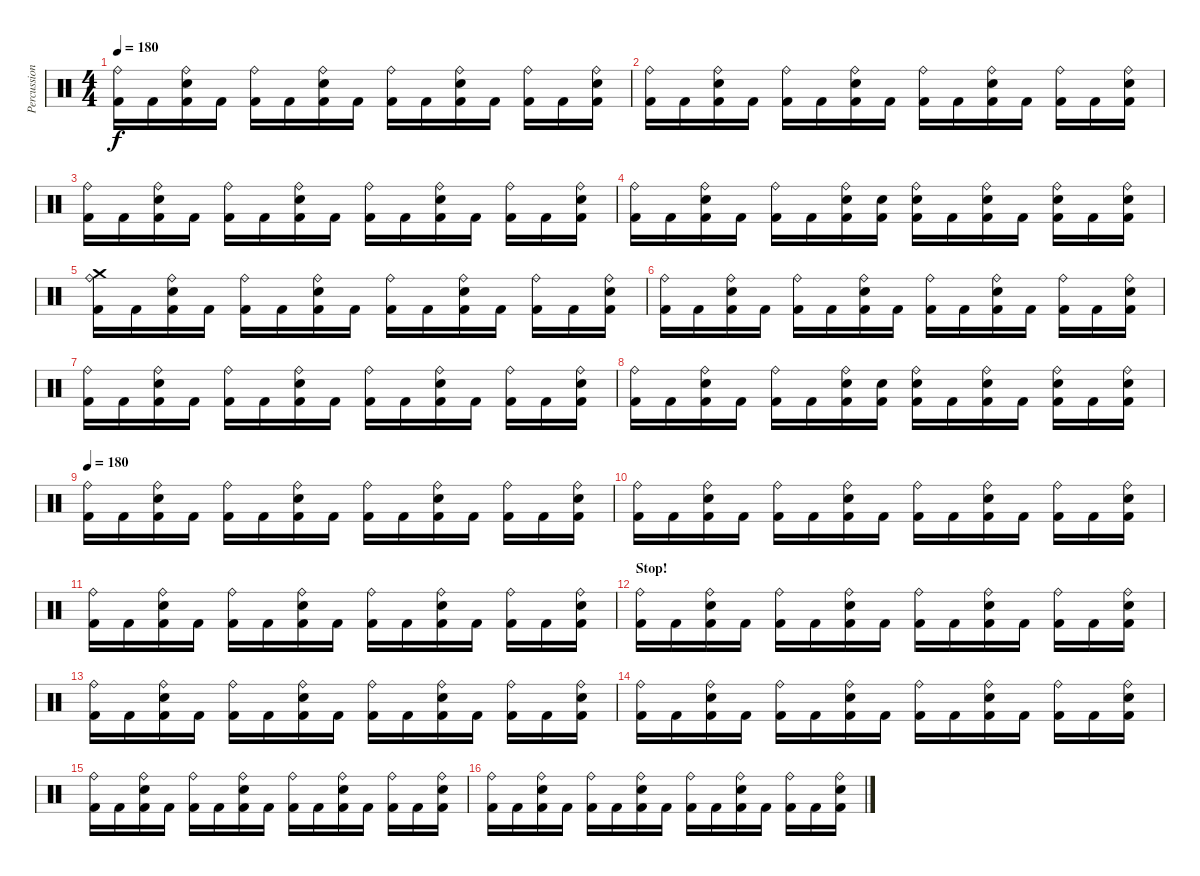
\track ("Percussion" "Percussion") {instrument percussion}
\staff {score}
\articulation defaults
\ts (4 4)
\tempo 180
\clef neutral
\ks c
("Ride (bell)" "Kick (hit) 2").16{dy f} "Kick (hit) 2".16 ("Ride (bell)" "Snare (hit) 2" "Kick (hit) 2").16 "Kick (hit) 2".16 ("Ride (bell)" "Kick (hit) 2").16 "Kick (hit) 2".16 ("Ride (bell)" "Snare (hit) 2" "Kick (hit) 2").16 "Kick (hit) 2".16 ("Ride (bell)" "Kick (hit) 2").16 "Kick (hit) 2".16 ("Ride (bell)" "Snare (hit) 2" "Kick (hit) 2").16 "Kick (hit) 2".16 ("Ride (bell)" "Kick (hit) 2").16 "Kick (hit) 2".16 ("Ride (bell)" "Snare (hit) 2" "Kick (hit) 2").16 |
("Ride (bell)" "Kick (hit) 2").16 "Kick (hit) 2".16 ("Ride (bell)" "Snare (hit) 2" "Kick (hit) 2").16 "Kick (hit) 2".16 ("Ride (bell)" "Kick (hit) 2").16 "Kick (hit) 2".16 ("Ride (bell)" "Snare (hit) 2" "Kick (hit) 2").16 "Kick (hit) 2".16 ("Ride (bell)" "Kick (hit) 2").16 "Kick (hit) 2".16 ("Ride (bell)" "Snare (hit) 2" "Kick (hit) 2").16 "Kick (hit) 2".16 ("Ride (bell)" "Kick (hit) 2").16 "Kick (hit) 2".16 ("Ride (bell)" "Snare (hit) 2" "Kick (hit) 2").16 |
("Ride (bell)" "Kick (hit) 2").16 "Kick (hit) 2".16 ("Ride (bell)" "Snare (hit) 2" "Kick (hit) 2").16 "Kick (hit) 2".16 ("Ride (bell)" "Kick (hit) 2").16 "Kick (hit) 2".16 ("Ride (bell)" "Snare (hit) 2" "Kick (hit) 2").16 "Kick (hit) 2".16 ("Ride (bell)" "Kick (hit) 2").16 "Kick (hit) 2".16 ("Ride (bell)" "Snare (hit) 2" "Kick (hit) 2").16 "Kick (hit) 2".16 ("Ride (bell)" "Kick (hit) 2").16 "Kick (hit) 2".16 ("Ride (bell)" "Snare (hit) 2" "Kick (hit) 2").16 |
("Ride (bell)" "Kick (hit) 2").16 "Kick (hit) 2".16 ("Ride (bell)" "Snare (hit) 2" "Kick (hit) 2").16 "Kick (hit) 2".16 ("Ride (bell)" "Kick (hit) 2").16 "Kick (hit) 2".16 ("Ride (bell)" "Snare (hit) 2" "Kick (hit) 2").16 ("Snare (hit) 2" "Kick (hit) 2").16 ("Ride (bell)" "Snare (hit) 2" "Kick (hit) 2").16 "Kick (hit) 2".16 ("Ride (bell)" "Snare (hit) 2" "Kick (hit) 2").16 "Kick (hit) 2".16 ("Ride (bell)" "Snare (hit) 2" "Kick (hit) 2").16 "Kick (hit) 2".16 ("Ride (bell)" "Snare (hit) 2" "Kick (hit) 2").16 |
("Ride (bell)" "Crash medium (hit)" "Kick (hit) 2").16 "Kick (hit) 2".16 ("Ride (bell)" "Snare (hit) 2" "Kick (hit) 2").16 "Kick (hit) 2".16 ("Ride (bell)" "Kick (hit) 2").16 "Kick (hit) 2".16 ("Ride (bell)" "Snare (hit) 2" "Kick (hit) 2").16 "Kick (hit) 2".16 ("Ride (bell)" "Kick (hit) 2").16 "Kick (hit) 2".16 ("Ride (bell)" "Snare (hit) 2" "Kick (hit) 2").16 "Kick (hit) 2".16 ("Ride (bell)" "Kick (hit) 2").16 "Kick (hit) 2".16 ("Ride (bell)" "Snare (hit) 2" "Kick (hit) 2").16 |
("Ride (bell)" "Kick (hit) 2").16 "Kick (hit) 2".16 ("Ride (bell)" "Snare (hit) 2" "Kick (hit) 2").16 "Kick (hit) 2".16 ("Ride (bell)" "Kick (hit) 2").16 "Kick (hit) 2".16 ("Ride (bell)" "Snare (hit) 2" "Kick (hit) 2").16 "Kick (hit) 2".16 ("Ride (bell)" "Kick (hit) 2").16 "Kick (hit) 2".16 ("Ride (bell)" "Snare (hit) 2" "Kick (hit) 2").16 "Kick (hit) 2".16 ("Ride (bell)" "Kick (hit) 2").16 "Kick (hit) 2".16 ("Ride (bell)" "Snare (hit) 2" "Kick (hit) 2").16 |
("Ride (bell)" "Kick (hit) 2").16 "Kick (hit) 2".16 ("Ride (bell)" "Snare (hit) 2" "Kick (hit) 2").16 "Kick (hit) 2".16 ("Ride (bell)" "Kick (hit) 2").16 "Kick (hit) 2".16 ("Ride (bell)" "Snare (hit) 2" "Kick (hit) 2").16 "Kick (hit) 2".16 ("Ride (bell)" "Kick (hit) 2").16 "Kick (hit) 2".16 ("Ride (bell)" "Snare (hit) 2" "Kick (hit) 2").16 "Kick (hit) 2".16 ("Ride (bell)" "Kick (hit) 2").16 "Kick (hit) 2".16 ("Ride (bell)" "Snare (hit) 2" "Kick (hit) 2").16 |
("Ride (bell)" "Kick (hit) 2").16 "Kick (hit) 2".16 ("Ride (bell)" "Snare (hit) 2" "Kick (hit) 2").16 "Kick (hit) 2".16 ("Ride (bell)" "Kick (hit) 2").16 "Kick (hit) 2".16 ("Ride (bell)" "Snare (hit) 2" "Kick (hit) 2").16 ("Snare (hit) 2" "Kick (hit) 2").16 ("Ride (bell)" "Snare (hit) 2" "Kick (hit) 2").16 "Kick (hit) 2".16 ("Ride (bell)" "Snare (hit) 2" "Kick (hit) 2").16 "Kick (hit) 2".16 ("Ride (bell)" "Snare (hit) 2" "Kick (hit) 2").16 "Kick (hit) 2".16 ("Ride (bell)" "Snare (hit) 2" "Kick (hit) 2").16 |
\tempo 180
("Ride (bell)" "Kick (hit) 2").16 "Kick (hit) 2".16 ("Ride (bell)" "Snare (hit) 2" "Kick (hit) 2").16 "Kick (hit) 2".16 ("Ride (bell)" "Kick (hit) 2").16 "Kick (hit) 2".16 ("Ride (bell)" "Snare (hit) 2" "Kick (hit) 2").16 "Kick (hit) 2".16 ("Ride (bell)" "Kick (hit) 2").16 "Kick (hit) 2".16 ("Ride (bell)" "Snare (hit) 2" "Kick (hit) 2").16 "Kick (hit) 2".16 ("Ride (bell)" "Kick (hit) 2").16 "Kick (hit) 2".16 ("Ride (bell)" "Snare (hit) 2" "Kick (hit) 2").16 |
("Ride (bell)" "Kick (hit) 2").16 "Kick (hit) 2".16 ("Ride (bell)" "Snare (hit) 2" "Kick (hit) 2").16 "Kick (hit) 2".16 ("Ride (bell)" "Kick (hit) 2").16 "Kick (hit) 2".16 ("Ride (bell)" "Snare (hit) 2" "Kick (hit) 2").16 "Kick (hit) 2".16 ("Ride (bell)" "Kick (hit) 2").16 "Kick (hit) 2".16 ("Ride (bell)" "Snare (hit) 2" "Kick (hit) 2").16 "Kick (hit) 2".16 ("Ride (bell)" "Kick (hit) 2").16 "Kick (hit) 2".16 ("Ride (bell)" "Snare (hit) 2" "Kick (hit) 2").16 |
("Ride (bell)" "Kick (hit) 2").16 "Kick (hit) 2".16 ("Ride (bell)" "Snare (hit) 2" "Kick (hit) 2").16 "Kick (hit) 2".16 ("Ride (bell)" "Kick (hit) 2").16 "Kick (hit) 2".16 ("Ride (bell)" "Snare (hit) 2" "Kick (hit) 2").16 "Kick (hit) 2".16 ("Ride (bell)" "Kick (hit) 2").16 "Kick (hit) 2".16 ("Ride (bell)" "Snare (hit) 2" "Kick (hit) 2").16 "Kick (hit) 2".16 ("Ride (bell)" "Kick (hit) 2").16 "Kick (hit) 2".16 ("Ride (bell)" "Snare (hit) 2" "Kick (hit) 2").16 |
\section ("" "Stop!")
("Ride (bell)" "Kick (hit) 2").16 "Kick (hit) 2".16 ("Ride (bell)" "Snare (hit) 2" "Kick (hit) 2").16 "Kick (hit) 2".16 ("Ride (bell)" "Kick (hit) 2").16 "Kick (hit) 2".16 ("Ride (bell)" "Snare (hit) 2" "Kick (hit) 2").16 "Kick (hit) 2".16 ("Ride (bell)" "Kick (hit) 2").16 "Kick (hit) 2".16 ("Ride (bell)" "Snare (hit) 2" "Kick (hit) 2").16 "Kick (hit) 2".16 ("Ride (bell)" "Kick (hit) 2").16 "Kick (hit) 2".16 ("Ride (bell)" "Snare (hit) 2" "Kick (hit) 2").16 |
("Ride (bell)" "Kick (hit) 2").16 "Kick (hit) 2".16 ("Ride (bell)" "Snare (hit) 2" "Kick (hit) 2").16 "Kick (hit) 2".16 ("Ride (bell)" "Kick (hit) 2").16 "Kick (hit) 2".16 ("Ride (bell)" "Snare (hit) 2" "Kick (hit) 2").16 "Kick (hit) 2".16 ("Ride (bell)" "Kick (hit) 2").16 "Kick (hit) 2".16 ("Ride (bell)" "Snare (hit) 2" "Kick (hit) 2").16 "Kick (hit) 2".16 ("Ride (bell)" "Kick (hit) 2").16 "Kick (hit) 2".16 ("Ride (bell)" "Snare (hit) 2" "Kick (hit) 2").16 |
("Ride (bell)" "Kick (hit) 2").16 "Kick (hit) 2".16 ("Ride (bell)" "Snare (hit) 2" "Kick (hit) 2").16 "Kick (hit) 2".16 ("Ride (bell)" "Kick (hit) 2").16 "Kick (hit) 2".16 ("Ride (bell)" "Snare (hit) 2" "Kick (hit) 2").16 "Kick (hit) 2".16 ("Ride (bell)" "Kick (hit) 2").16 "Kick (hit) 2".16 ("Ride (bell)" "Snare (hit) 2" "Kick (hit) 2").16 "Kick (hit) 2".16 ("Ride (bell)" "Kick (hit) 2").16 "Kick (hit) 2".16 ("Ride (bell)" "Snare (hit) 2" "Kick (hit) 2").16 |
("Ride (bell)" "Kick (hit) 2").16 "Kick (hit) 2".16 ("Ride (bell)" "Snare (hit) 2" "Kick (hit) 2").16 "Kick (hit) 2".16 ("Ride (bell)" "Kick (hit) 2").16 "Kick (hit) 2".16 ("Ride (bell)" "Snare (hit) 2" "Kick (hit) 2").16 "Kick (hit) 2".16 ("Ride (bell)" "Kick (hit) 2").16 "Kick (hit) 2".16 ("Ride (bell)" "Snare (hit) 2" "Kick (hit) 2").16 "Kick (hit) 2".16 ("Ride (bell)" "Kick (hit) 2").16 "Kick (hit) 2".16 ("Ride (bell)" "Snare (hit) 2" "Kick (hit) 2").16 |
("Ride (bell)" "Kick (hit) 2").16 "Kick (hit) 2".16 ("Ride (bell)" "Snare (hit) 2" "Kick (hit) 2").16 "Kick (hit) 2".16 ("Ride (bell)" "Kick (hit) 2").16 "Kick (hit) 2".16 ("Ride (bell)" "Snare (hit) 2" "Kick (hit) 2").16 "Kick (hit) 2".16 ("Ride (bell)" "Kick (hit) 2").16 "Kick (hit) 2".16 ("Ride (bell)" "Snare (hit) 2" "Kick (hit) 2").16 "Kick (hit) 2".16 ("Ride (bell)" "Kick (hit) 2").16 "Kick (hit) 2".16 ("Ride (bell)" "Snare (hit) 2" "Kick (hit) 2").16
